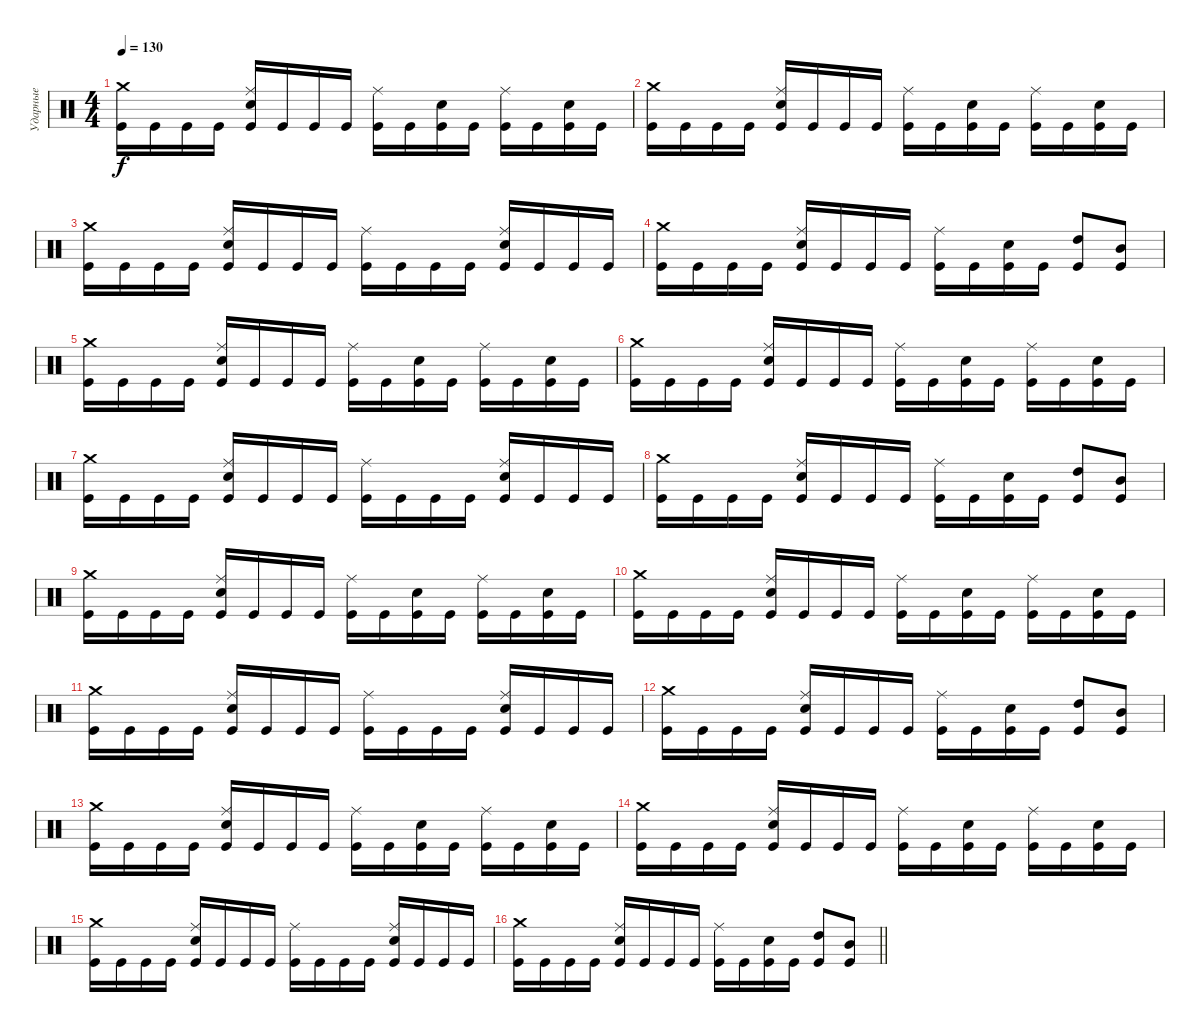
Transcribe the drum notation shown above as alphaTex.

\track ("Ударные" "Ударные") {instrument percussion}
\staff {score}
\articulation defaults
\ts (4 4)
\section ("" " ")
\tempo 130
\clef neutral
\ks c
("Crash medium (hit)" "Kick (hit)").16{dy f} "Kick (hit)".16 "Kick (hit)".16 "Kick (hit)".16 ("Ride (middle)" "Electric Snare (hit)" "Kick (hit)").16 "Kick (hit)".16 "Kick (hit)".16 "Kick (hit)".16 ("Ride (middle)" "Kick (hit)").16 "Kick (hit)".16 ("Electric Snare (hit)" "Kick (hit)").16 "Kick (hit)".16 ("Ride (middle)" "Kick (hit)").16 "Kick (hit)".16 ("Electric Snare (hit)" "Kick (hit)").16 "Kick (hit)".16 |
("Crash medium (hit)" "Kick (hit)").16 "Kick (hit)".16 "Kick (hit)".16 "Kick (hit)".16 ("Ride (middle)" "Electric Snare (hit)" "Kick (hit)").16 "Kick (hit)".16 "Kick (hit)".16 "Kick (hit)".16 ("Ride (middle)" "Kick (hit)").16 "Kick (hit)".16 ("Electric Snare (hit)" "Kick (hit)").16 "Kick (hit)".16 ("Ride (middle)" "Kick (hit)").16 "Kick (hit)".16 ("Electric Snare (hit)" "Kick (hit)").16 "Kick (hit)".16 |
("Crash medium (hit)" "Kick (hit)").16 "Kick (hit)".16 "Kick (hit)".16 "Kick (hit)".16 ("Ride (middle)" "Electric Snare (hit)" "Kick (hit)").16 "Kick (hit)".16 "Kick (hit)".16 "Kick (hit)".16 ("Ride (middle)" "Kick (hit)").16 "Kick (hit)".16 "Kick (hit)".16 "Kick (hit)".16 ("Ride (middle)" "Electric Snare (hit)" "Kick (hit)").16 "Kick (hit)".16 "Kick (hit)".16 "Kick (hit)".16 |
("Crash medium (hit)" "Kick (hit)").16 "Kick (hit)".16 "Kick (hit)".16 "Kick (hit)".16 ("Ride (middle)" "Electric Snare (hit)" "Kick (hit)").16 "Kick (hit)".16 "Kick (hit)".16 "Kick (hit)".16 ("Ride (middle)" "Kick (hit)").16 "Kick (hit)".16 ("Electric Snare (hit)" "Kick (hit)").16 "Kick (hit)".16 ("High Tom (hit)" "Kick (hit)").8 ("Mid Tom (hit)" "Kick (hit)").8 |
("Crash medium (hit)" "Kick (hit)").16 "Kick (hit)".16 "Kick (hit)".16 "Kick (hit)".16 ("Ride (middle)" "Electric Snare (hit)" "Kick (hit)").16 "Kick (hit)".16 "Kick (hit)".16 "Kick (hit)".16 ("Ride (middle)" "Kick (hit)").16 "Kick (hit)".16 ("Electric Snare (hit)" "Kick (hit)").16 "Kick (hit)".16 ("Ride (middle)" "Kick (hit)").16 "Kick (hit)".16 ("Electric Snare (hit)" "Kick (hit)").16 "Kick (hit)".16 |
("Crash medium (hit)" "Kick (hit)").16 "Kick (hit)".16 "Kick (hit)".16 "Kick (hit)".16 ("Ride (middle)" "Electric Snare (hit)" "Kick (hit)").16 "Kick (hit)".16 "Kick (hit)".16 "Kick (hit)".16 ("Ride (middle)" "Kick (hit)").16 "Kick (hit)".16 ("Electric Snare (hit)" "Kick (hit)").16 "Kick (hit)".16 ("Ride (middle)" "Kick (hit)").16 "Kick (hit)".16 ("Electric Snare (hit)" "Kick (hit)").16 "Kick (hit)".16 |
("Crash medium (hit)" "Kick (hit)").16 "Kick (hit)".16 "Kick (hit)".16 "Kick (hit)".16 ("Ride (middle)" "Electric Snare (hit)" "Kick (hit)").16 "Kick (hit)".16 "Kick (hit)".16 "Kick (hit)".16 ("Ride (middle)" "Kick (hit)").16 "Kick (hit)".16 "Kick (hit)".16 "Kick (hit)".16 ("Ride (middle)" "Electric Snare (hit)" "Kick (hit)").16 "Kick (hit)".16 "Kick (hit)".16 "Kick (hit)".16 |
("Crash medium (hit)" "Kick (hit)").16 "Kick (hit)".16 "Kick (hit)".16 "Kick (hit)".16 ("Ride (middle)" "Electric Snare (hit)" "Kick (hit)").16 "Kick (hit)".16 "Kick (hit)".16 "Kick (hit)".16 ("Ride (middle)" "Kick (hit)").16 "Kick (hit)".16 ("Electric Snare (hit)" "Kick (hit)").16 "Kick (hit)".16 ("High Tom (hit)" "Kick (hit)").8 ("Mid Tom (hit)" "Kick (hit)").8 |
("Crash medium (hit)" "Kick (hit)").16 "Kick (hit)".16 "Kick (hit)".16 "Kick (hit)".16 ("Ride (middle)" "Electric Snare (hit)" "Kick (hit)").16 "Kick (hit)".16 "Kick (hit)".16 "Kick (hit)".16 ("Ride (middle)" "Kick (hit)").16 "Kick (hit)".16 ("Electric Snare (hit)" "Kick (hit)").16 "Kick (hit)".16 ("Ride (middle)" "Kick (hit)").16 "Kick (hit)".16 ("Electric Snare (hit)" "Kick (hit)").16 "Kick (hit)".16 |
("Crash medium (hit)" "Kick (hit)").16 "Kick (hit)".16 "Kick (hit)".16 "Kick (hit)".16 ("Ride (middle)" "Electric Snare (hit)" "Kick (hit)").16 "Kick (hit)".16 "Kick (hit)".16 "Kick (hit)".16 ("Ride (middle)" "Kick (hit)").16 "Kick (hit)".16 ("Electric Snare (hit)" "Kick (hit)").16 "Kick (hit)".16 ("Ride (middle)" "Kick (hit)").16 "Kick (hit)".16 ("Electric Snare (hit)" "Kick (hit)").16 "Kick (hit)".16 |
("Crash medium (hit)" "Kick (hit)").16 "Kick (hit)".16 "Kick (hit)".16 "Kick (hit)".16 ("Ride (middle)" "Electric Snare (hit)" "Kick (hit)").16 "Kick (hit)".16 "Kick (hit)".16 "Kick (hit)".16 ("Ride (middle)" "Kick (hit)").16 "Kick (hit)".16 "Kick (hit)".16 "Kick (hit)".16 ("Ride (middle)" "Electric Snare (hit)" "Kick (hit)").16 "Kick (hit)".16 "Kick (hit)".16 "Kick (hit)".16 |
("Crash medium (hit)" "Kick (hit)").16 "Kick (hit)".16 "Kick (hit)".16 "Kick (hit)".16 ("Ride (middle)" "Electric Snare (hit)" "Kick (hit)").16 "Kick (hit)".16 "Kick (hit)".16 "Kick (hit)".16 ("Ride (middle)" "Kick (hit)").16 "Kick (hit)".16 ("Electric Snare (hit)" "Kick (hit)").16 "Kick (hit)".16 ("High Tom (hit)" "Kick (hit)").8 ("Mid Tom (hit)" "Kick (hit)").8 |
("Crash medium (hit)" "Kick (hit)").16 "Kick (hit)".16 "Kick (hit)".16 "Kick (hit)".16 ("Ride (middle)" "Electric Snare (hit)" "Kick (hit)").16 "Kick (hit)".16 "Kick (hit)".16 "Kick (hit)".16 ("Ride (middle)" "Kick (hit)").16 "Kick (hit)".16 ("Electric Snare (hit)" "Kick (hit)").16 "Kick (hit)".16 ("Ride (middle)" "Kick (hit)").16 "Kick (hit)".16 ("Electric Snare (hit)" "Kick (hit)").16 "Kick (hit)".16 |
("Crash medium (hit)" "Kick (hit)").16 "Kick (hit)".16 "Kick (hit)".16 "Kick (hit)".16 ("Ride (middle)" "Electric Snare (hit)" "Kick (hit)").16 "Kick (hit)".16 "Kick (hit)".16 "Kick (hit)".16 ("Ride (middle)" "Kick (hit)").16 "Kick (hit)".16 ("Electric Snare (hit)" "Kick (hit)").16 "Kick (hit)".16 ("Ride (middle)" "Kick (hit)").16 "Kick (hit)".16 ("Electric Snare (hit)" "Kick (hit)").16 "Kick (hit)".16 |
("Crash medium (hit)" "Kick (hit)").16 "Kick (hit)".16 "Kick (hit)".16 "Kick (hit)".16 ("Ride (middle)" "Electric Snare (hit)" "Kick (hit)").16 "Kick (hit)".16 "Kick (hit)".16 "Kick (hit)".16 ("Ride (middle)" "Kick (hit)").16 "Kick (hit)".16 "Kick (hit)".16 "Kick (hit)".16 ("Ride (middle)" "Electric Snare (hit)" "Kick (hit)").16 "Kick (hit)".16 "Kick (hit)".16 "Kick (hit)".16 |
\barLineRight lightlight
("Crash medium (hit)" "Kick (hit)").16 "Kick (hit)".16 "Kick (hit)".16 "Kick (hit)".16 ("Ride (middle)" "Electric Snare (hit)" "Kick (hit)").16 "Kick (hit)".16 "Kick (hit)".16 "Kick (hit)".16 ("Ride (middle)" "Kick (hit)").16 "Kick (hit)".16 ("Electric Snare (hit)" "Kick (hit)").16 "Kick (hit)".16 ("High Tom (hit)" "Kick (hit)").8 ("Mid Tom (hit)" "Kick (hit)").8
